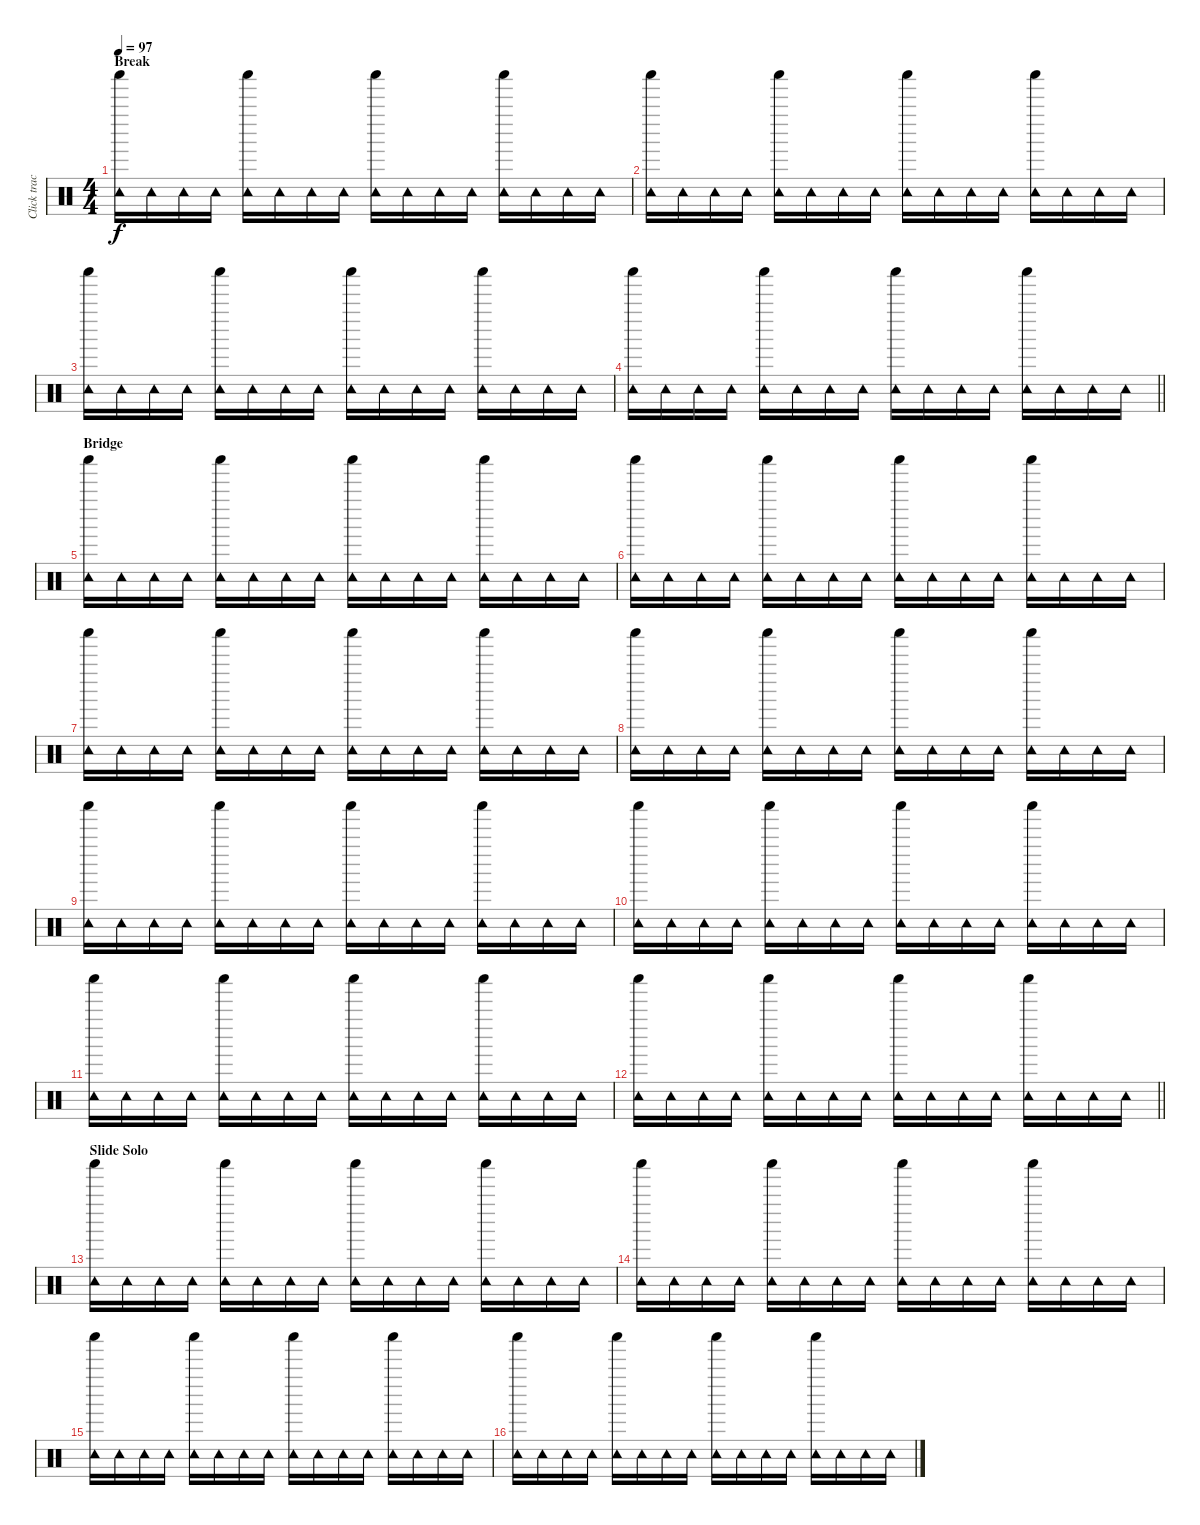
\track ("Click track" "Click trac") {instrument percussion}
\staff {score}
\articulation defaults
\ts (4 4)
\section ("" "Break")
\tempo 97
\clef neutral
\ks c
("Shaker (hit)" "Tambourine (hit)").16{dy f} "Tambourine (hit)".16 "Tambourine (hit)".16 "Tambourine (hit)".16 ("Shaker (hit)" "Tambourine (hit)").16 "Tambourine (hit)".16 "Tambourine (hit)".16 "Tambourine (hit)".16 ("Shaker (hit)" "Tambourine (hit)").16 "Tambourine (hit)".16 "Tambourine (hit)".16 "Tambourine (hit)".16 ("Shaker (hit)" "Tambourine (hit)").16 "Tambourine (hit)".16 "Tambourine (hit)".16 "Tambourine (hit)".16 |
("Shaker (hit)" "Tambourine (hit)").16 "Tambourine (hit)".16 "Tambourine (hit)".16 "Tambourine (hit)".16 ("Shaker (hit)" "Tambourine (hit)").16 "Tambourine (hit)".16 "Tambourine (hit)".16 "Tambourine (hit)".16 ("Shaker (hit)" "Tambourine (hit)").16 "Tambourine (hit)".16 "Tambourine (hit)".16 "Tambourine (hit)".16 ("Shaker (hit)" "Tambourine (hit)").16 "Tambourine (hit)".16 "Tambourine (hit)".16 "Tambourine (hit)".16 |
("Shaker (hit)" "Tambourine (hit)").16 "Tambourine (hit)".16 "Tambourine (hit)".16 "Tambourine (hit)".16 ("Shaker (hit)" "Tambourine (hit)").16 "Tambourine (hit)".16 "Tambourine (hit)".16 "Tambourine (hit)".16 ("Shaker (hit)" "Tambourine (hit)").16 "Tambourine (hit)".16 "Tambourine (hit)".16 "Tambourine (hit)".16 ("Shaker (hit)" "Tambourine (hit)").16 "Tambourine (hit)".16 "Tambourine (hit)".16 "Tambourine (hit)".16 |
\barLineRight lightlight
("Shaker (hit)" "Tambourine (hit)").16 "Tambourine (hit)".16 "Tambourine (hit)".16 "Tambourine (hit)".16 ("Shaker (hit)" "Tambourine (hit)").16 "Tambourine (hit)".16 "Tambourine (hit)".16 "Tambourine (hit)".16 ("Shaker (hit)" "Tambourine (hit)").16 "Tambourine (hit)".16 "Tambourine (hit)".16 "Tambourine (hit)".16 ("Shaker (hit)" "Tambourine (hit)").16 "Tambourine (hit)".16 "Tambourine (hit)".16 "Tambourine (hit)".16 |
\section ("" "Bridge")
("Shaker (hit)" "Tambourine (hit)").16 "Tambourine (hit)".16 "Tambourine (hit)".16 "Tambourine (hit)".16 ("Shaker (hit)" "Tambourine (hit)").16 "Tambourine (hit)".16 "Tambourine (hit)".16 "Tambourine (hit)".16 ("Shaker (hit)" "Tambourine (hit)").16 "Tambourine (hit)".16 "Tambourine (hit)".16 "Tambourine (hit)".16 ("Shaker (hit)" "Tambourine (hit)").16 "Tambourine (hit)".16 "Tambourine (hit)".16 "Tambourine (hit)".16 |
("Shaker (hit)" "Tambourine (hit)").16 "Tambourine (hit)".16 "Tambourine (hit)".16 "Tambourine (hit)".16 ("Shaker (hit)" "Tambourine (hit)").16 "Tambourine (hit)".16 "Tambourine (hit)".16 "Tambourine (hit)".16 ("Shaker (hit)" "Tambourine (hit)").16 "Tambourine (hit)".16 "Tambourine (hit)".16 "Tambourine (hit)".16 ("Shaker (hit)" "Tambourine (hit)").16 "Tambourine (hit)".16 "Tambourine (hit)".16 "Tambourine (hit)".16 |
("Shaker (hit)" "Tambourine (hit)").16 "Tambourine (hit)".16 "Tambourine (hit)".16 "Tambourine (hit)".16 ("Shaker (hit)" "Tambourine (hit)").16 "Tambourine (hit)".16 "Tambourine (hit)".16 "Tambourine (hit)".16 ("Shaker (hit)" "Tambourine (hit)").16 "Tambourine (hit)".16 "Tambourine (hit)".16 "Tambourine (hit)".16 ("Shaker (hit)" "Tambourine (hit)").16 "Tambourine (hit)".16 "Tambourine (hit)".16 "Tambourine (hit)".16 |
("Shaker (hit)" "Tambourine (hit)").16 "Tambourine (hit)".16 "Tambourine (hit)".16 "Tambourine (hit)".16 ("Shaker (hit)" "Tambourine (hit)").16 "Tambourine (hit)".16 "Tambourine (hit)".16 "Tambourine (hit)".16 ("Shaker (hit)" "Tambourine (hit)").16 "Tambourine (hit)".16 "Tambourine (hit)".16 "Tambourine (hit)".16 ("Shaker (hit)" "Tambourine (hit)").16 "Tambourine (hit)".16 "Tambourine (hit)".16 "Tambourine (hit)".16 |
("Shaker (hit)" "Tambourine (hit)").16 "Tambourine (hit)".16 "Tambourine (hit)".16 "Tambourine (hit)".16 ("Shaker (hit)" "Tambourine (hit)").16 "Tambourine (hit)".16 "Tambourine (hit)".16 "Tambourine (hit)".16 ("Shaker (hit)" "Tambourine (hit)").16 "Tambourine (hit)".16 "Tambourine (hit)".16 "Tambourine (hit)".16 ("Shaker (hit)" "Tambourine (hit)").16 "Tambourine (hit)".16 "Tambourine (hit)".16 "Tambourine (hit)".16 |
("Shaker (hit)" "Tambourine (hit)").16 "Tambourine (hit)".16 "Tambourine (hit)".16 "Tambourine (hit)".16 ("Shaker (hit)" "Tambourine (hit)").16 "Tambourine (hit)".16 "Tambourine (hit)".16 "Tambourine (hit)".16 ("Shaker (hit)" "Tambourine (hit)").16 "Tambourine (hit)".16 "Tambourine (hit)".16 "Tambourine (hit)".16 ("Shaker (hit)" "Tambourine (hit)").16 "Tambourine (hit)".16 "Tambourine (hit)".16 "Tambourine (hit)".16 |
("Shaker (hit)" "Tambourine (hit)").16 "Tambourine (hit)".16 "Tambourine (hit)".16 "Tambourine (hit)".16 ("Shaker (hit)" "Tambourine (hit)").16 "Tambourine (hit)".16 "Tambourine (hit)".16 "Tambourine (hit)".16 ("Shaker (hit)" "Tambourine (hit)").16 "Tambourine (hit)".16 "Tambourine (hit)".16 "Tambourine (hit)".16 ("Shaker (hit)" "Tambourine (hit)").16 "Tambourine (hit)".16 "Tambourine (hit)".16 "Tambourine (hit)".16 |
\barLineRight lightlight
("Shaker (hit)" "Tambourine (hit)").16 "Tambourine (hit)".16 "Tambourine (hit)".16 "Tambourine (hit)".16 ("Shaker (hit)" "Tambourine (hit)").16 "Tambourine (hit)".16 "Tambourine (hit)".16 "Tambourine (hit)".16 ("Shaker (hit)" "Tambourine (hit)").16 "Tambourine (hit)".16 "Tambourine (hit)".16 "Tambourine (hit)".16 ("Shaker (hit)" "Tambourine (hit)").16 "Tambourine (hit)".16 "Tambourine (hit)".16 "Tambourine (hit)".16 |
\section ("" "Slide Solo")
("Shaker (hit)" "Tambourine (hit)").16 "Tambourine (hit)".16 "Tambourine (hit)".16 "Tambourine (hit)".16 ("Shaker (hit)" "Tambourine (hit)").16 "Tambourine (hit)".16 "Tambourine (hit)".16 "Tambourine (hit)".16 ("Shaker (hit)" "Tambourine (hit)").16 "Tambourine (hit)".16 "Tambourine (hit)".16 "Tambourine (hit)".16 ("Shaker (hit)" "Tambourine (hit)").16 "Tambourine (hit)".16 "Tambourine (hit)".16 "Tambourine (hit)".16 |
("Shaker (hit)" "Tambourine (hit)").16 "Tambourine (hit)".16 "Tambourine (hit)".16 "Tambourine (hit)".16 ("Shaker (hit)" "Tambourine (hit)").16 "Tambourine (hit)".16 "Tambourine (hit)".16 "Tambourine (hit)".16 ("Shaker (hit)" "Tambourine (hit)").16 "Tambourine (hit)".16 "Tambourine (hit)".16 "Tambourine (hit)".16 ("Shaker (hit)" "Tambourine (hit)").16 "Tambourine (hit)".16 "Tambourine (hit)".16 "Tambourine (hit)".16 |
("Shaker (hit)" "Tambourine (hit)").16 "Tambourine (hit)".16 "Tambourine (hit)".16 "Tambourine (hit)".16 ("Shaker (hit)" "Tambourine (hit)").16 "Tambourine (hit)".16 "Tambourine (hit)".16 "Tambourine (hit)".16 ("Shaker (hit)" "Tambourine (hit)").16 "Tambourine (hit)".16 "Tambourine (hit)".16 "Tambourine (hit)".16 ("Shaker (hit)" "Tambourine (hit)").16 "Tambourine (hit)".16 "Tambourine (hit)".16 "Tambourine (hit)".16 |
("Shaker (hit)" "Tambourine (hit)").16 "Tambourine (hit)".16 "Tambourine (hit)".16 "Tambourine (hit)".16 ("Shaker (hit)" "Tambourine (hit)").16 "Tambourine (hit)".16 "Tambourine (hit)".16 "Tambourine (hit)".16 ("Shaker (hit)" "Tambourine (hit)").16 "Tambourine (hit)".16 "Tambourine (hit)".16 "Tambourine (hit)".16 ("Shaker (hit)" "Tambourine (hit)").16 "Tambourine (hit)".16 "Tambourine (hit)".16 "Tambourine (hit)".16
